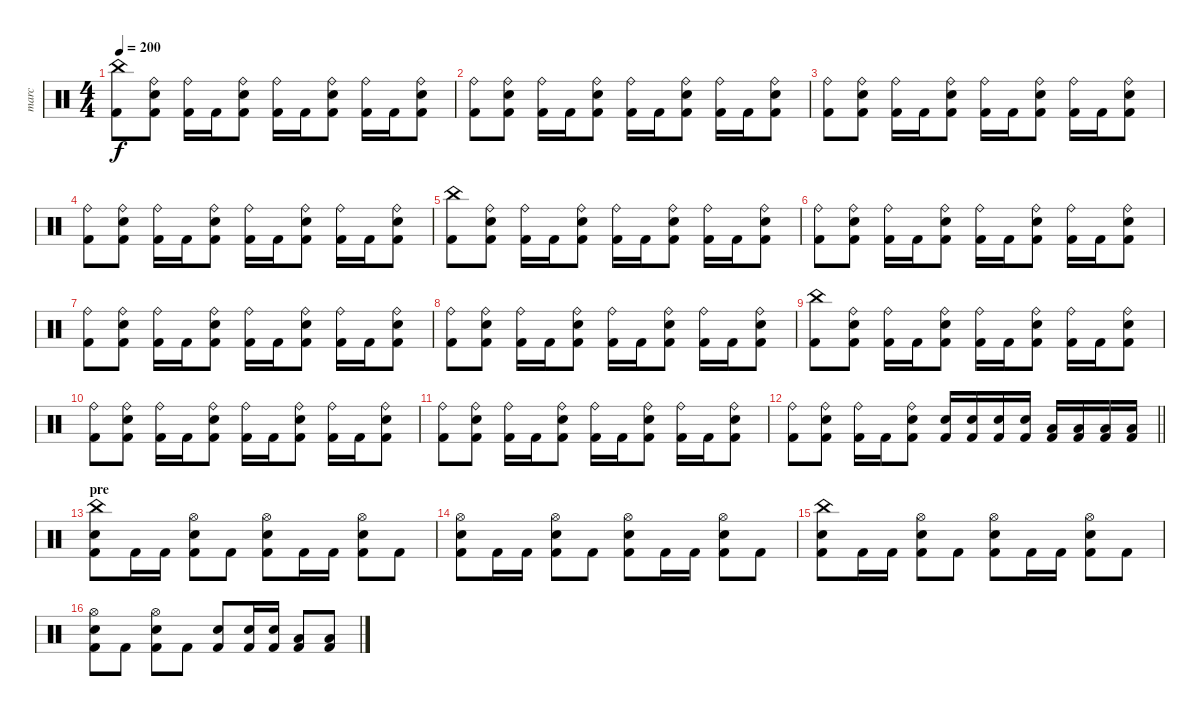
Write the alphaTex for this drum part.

\track ("marc" "marc") {instrument percussion}
\staff {score}
\articulation defaults
\ts (4 4)
\tempo 200
\clef neutral
\ks c
("China (hit)" "Kick (hit) 2").8{dy f} ("Ride (bell)" "Snare (hit) 2" "Kick (hit) 2").8 ("Ride (bell)" "Kick (hit) 2").16 "Kick (hit) 2".16 ("Ride (bell)" "Snare (hit) 2" "Kick (hit) 2").8 ("Ride (bell)" "Kick (hit) 2").16 "Kick (hit) 2".16 ("Ride (bell)" "Snare (hit) 2" "Kick (hit) 2").8 ("Ride (bell)" "Kick (hit) 2").16 "Kick (hit) 2".16 ("Ride (bell)" "Snare (hit) 2" "Kick (hit) 2").8 |
("Ride (bell)" "Kick (hit) 2").8 ("Ride (bell)" "Snare (hit) 2" "Kick (hit) 2").8 ("Ride (bell)" "Kick (hit) 2").16 "Kick (hit) 2".16 ("Ride (bell)" "Snare (hit) 2" "Kick (hit) 2").8 ("Ride (bell)" "Kick (hit) 2").16 "Kick (hit) 2".16 ("Ride (bell)" "Snare (hit) 2" "Kick (hit) 2").8 ("Ride (bell)" "Kick (hit) 2").16 "Kick (hit) 2".16 ("Ride (bell)" "Snare (hit) 2" "Kick (hit) 2").8 |
("Ride (bell)" "Kick (hit) 2").8 ("Ride (bell)" "Snare (hit) 2" "Kick (hit) 2").8 ("Ride (bell)" "Kick (hit) 2").16 "Kick (hit) 2".16 ("Ride (bell)" "Snare (hit) 2" "Kick (hit) 2").8 ("Ride (bell)" "Kick (hit) 2").16 "Kick (hit) 2".16 ("Ride (bell)" "Snare (hit) 2" "Kick (hit) 2").8 ("Ride (bell)" "Kick (hit) 2").16 "Kick (hit) 2".16 ("Ride (bell)" "Snare (hit) 2" "Kick (hit) 2").8 |
("Ride (bell)" "Kick (hit) 2").8 ("Ride (bell)" "Snare (hit) 2" "Kick (hit) 2").8 ("Ride (bell)" "Kick (hit) 2").16 "Kick (hit) 2".16 ("Ride (bell)" "Snare (hit) 2" "Kick (hit) 2").8 ("Ride (bell)" "Kick (hit) 2").16 "Kick (hit) 2".16 ("Ride (bell)" "Snare (hit) 2" "Kick (hit) 2").8 ("Ride (bell)" "Kick (hit) 2").16 "Kick (hit) 2".16 ("Ride (bell)" "Snare (hit) 2" "Kick (hit) 2").8 |
("China (hit)" "Kick (hit) 2").8 ("Ride (bell)" "Snare (hit) 2" "Kick (hit) 2").8 ("Ride (bell)" "Kick (hit) 2").16 "Kick (hit) 2".16 ("Ride (bell)" "Snare (hit) 2" "Kick (hit) 2").8 ("Ride (bell)" "Kick (hit) 2").16 "Kick (hit) 2".16 ("Ride (bell)" "Snare (hit) 2" "Kick (hit) 2").8 ("Ride (bell)" "Kick (hit) 2").16 "Kick (hit) 2".16 ("Ride (bell)" "Snare (hit) 2" "Kick (hit) 2").8 |
("Ride (bell)" "Kick (hit) 2").8 ("Ride (bell)" "Snare (hit) 2" "Kick (hit) 2").8 ("Ride (bell)" "Kick (hit) 2").16 "Kick (hit) 2".16 ("Ride (bell)" "Snare (hit) 2" "Kick (hit) 2").8 ("Ride (bell)" "Kick (hit) 2").16 "Kick (hit) 2".16 ("Ride (bell)" "Snare (hit) 2" "Kick (hit) 2").8 ("Ride (bell)" "Kick (hit) 2").16 "Kick (hit) 2".16 ("Ride (bell)" "Snare (hit) 2" "Kick (hit) 2").8 |
("Ride (bell)" "Kick (hit) 2").8 ("Ride (bell)" "Snare (hit) 2" "Kick (hit) 2").8 ("Ride (bell)" "Kick (hit) 2").16 "Kick (hit) 2".16 ("Ride (bell)" "Snare (hit) 2" "Kick (hit) 2").8 ("Ride (bell)" "Kick (hit) 2").16 "Kick (hit) 2".16 ("Ride (bell)" "Snare (hit) 2" "Kick (hit) 2").8 ("Ride (bell)" "Kick (hit) 2").16 "Kick (hit) 2".16 ("Ride (bell)" "Snare (hit) 2" "Kick (hit) 2").8 |
("Ride (bell)" "Kick (hit) 2").8 ("Ride (bell)" "Snare (hit) 2" "Kick (hit) 2").8 ("Ride (bell)" "Kick (hit) 2").16 "Kick (hit) 2".16 ("Ride (bell)" "Snare (hit) 2" "Kick (hit) 2").8 ("Ride (bell)" "Kick (hit) 2").16 "Kick (hit) 2".16 ("Ride (bell)" "Snare (hit) 2" "Kick (hit) 2").8 ("Ride (bell)" "Kick (hit) 2").16 "Kick (hit) 2".16 ("Ride (bell)" "Snare (hit) 2" "Kick (hit) 2").8 |
("China (hit)" "Kick (hit) 2").8 ("Ride (bell)" "Snare (hit) 2" "Kick (hit) 2").8 ("Ride (bell)" "Kick (hit) 2").16 "Kick (hit) 2".16 ("Ride (bell)" "Snare (hit) 2" "Kick (hit) 2").8 ("Ride (bell)" "Kick (hit) 2").16 "Kick (hit) 2".16 ("Ride (bell)" "Snare (hit) 2" "Kick (hit) 2").8 ("Ride (bell)" "Kick (hit) 2").16 "Kick (hit) 2".16 ("Ride (bell)" "Snare (hit) 2" "Kick (hit) 2").8 |
("Ride (bell)" "Kick (hit) 2").8 ("Ride (bell)" "Snare (hit) 2" "Kick (hit) 2").8 ("Ride (bell)" "Kick (hit) 2").16 "Kick (hit) 2".16 ("Ride (bell)" "Snare (hit) 2" "Kick (hit) 2").8 ("Ride (bell)" "Kick (hit) 2").16 "Kick (hit) 2".16 ("Ride (bell)" "Snare (hit) 2" "Kick (hit) 2").8 ("Ride (bell)" "Kick (hit) 2").16 "Kick (hit) 2".16 ("Ride (bell)" "Snare (hit) 2" "Kick (hit) 2").8 |
("Ride (bell)" "Kick (hit) 2").8 ("Ride (bell)" "Snare (hit) 2" "Kick (hit) 2").8 ("Ride (bell)" "Kick (hit) 2").16 "Kick (hit) 2".16 ("Ride (bell)" "Snare (hit) 2" "Kick (hit) 2").8 ("Ride (bell)" "Kick (hit) 2").16 "Kick (hit) 2".16 ("Ride (bell)" "Snare (hit) 2" "Kick (hit) 2").8 ("Ride (bell)" "Kick (hit) 2").16 "Kick (hit) 2".16 ("Ride (bell)" "Snare (hit) 2" "Kick (hit) 2").8 |
\barLineRight lightlight
("Ride (bell)" "Kick (hit) 2").8 ("Ride (bell)" "Snare (hit) 2" "Kick (hit) 2").8 ("Ride (bell)" "Kick (hit) 2").16 "Kick (hit) 2".16 ("Ride (bell)" "Snare (hit) 2" "Kick (hit) 2").8 ("Snare (hit) 2" "Kick (hit) 2").16 ("Snare (hit) 2" "Kick (hit) 2").16 ("Snare (hit) 2" "Kick (hit) 2").16 ("Snare (hit) 2" "Kick (hit) 2").16 ("Low Tom (hit)" "Kick (hit) 2").16 ("Low Tom (hit)" "Kick (hit) 2").16 ("Low Tom (hit)" "Kick (hit) 2").16 ("Low Tom (hit)" "Kick (hit) 2").16 |
\section ("" "pre")
("China (hit)" "Snare (hit) 2" "Kick (hit) 2").8 "Kick (hit) 2".16 "Kick (hit) 2".16 ("Hi-Hat (open)" "Snare (hit) 2" "Kick (hit) 2").8 "Kick (hit) 2".8 ("Hi-Hat (open)" "Snare (hit) 2" "Kick (hit) 2").8 "Kick (hit) 2".16 "Kick (hit) 2".16 ("Hi-Hat (open)" "Snare (hit) 2" "Kick (hit) 2").8 "Kick (hit) 2".8 |
("Hi-Hat (open)" "Snare (hit) 2" "Kick (hit) 2").8 "Kick (hit) 2".16 "Kick (hit) 2".16 ("Hi-Hat (open)" "Snare (hit) 2" "Kick (hit) 2").8 "Kick (hit) 2".8 ("Hi-Hat (open)" "Snare (hit) 2" "Kick (hit) 2").8 "Kick (hit) 2".16 "Kick (hit) 2".16 ("Hi-Hat (open)" "Snare (hit) 2" "Kick (hit) 2").8 "Kick (hit) 2".8 |
("China (hit)" "Snare (hit) 2" "Kick (hit) 2").8 "Kick (hit) 2".16 "Kick (hit) 2".16 ("Hi-Hat (open)" "Snare (hit) 2" "Kick (hit) 2").8 "Kick (hit) 2".8 ("Hi-Hat (open)" "Snare (hit) 2" "Kick (hit) 2").8 "Kick (hit) 2".16 "Kick (hit) 2".16 ("Hi-Hat (open)" "Snare (hit) 2" "Kick (hit) 2").8 "Kick (hit) 2".8 |
("Hi-Hat (open)" "Snare (hit) 2" "Kick (hit) 2").8 "Kick (hit) 2".8 ("Hi-Hat (open)" "Snare (hit) 2" "Kick (hit) 2").8 "Kick (hit) 2".8 ("Snare (hit) 2" "Kick (hit) 2").8 ("Snare (hit) 2" "Kick (hit) 2").16 ("Snare (hit) 2" "Kick (hit) 2").16 ("Low Tom (hit)" "Kick (hit) 2").8 ("Low Tom (hit)" "Kick (hit) 2").8
